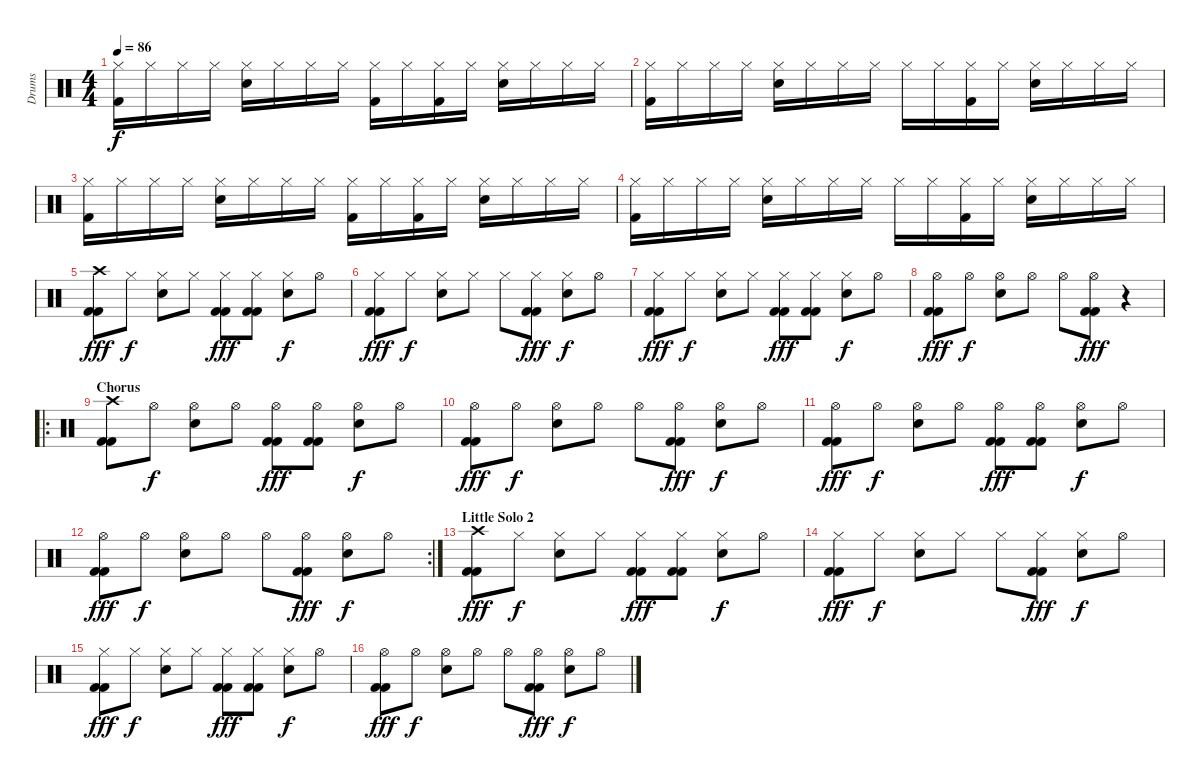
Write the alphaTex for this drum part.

\track ("Drums" "Drums") {instrument percussion}
\staff {score}
\articulation defaults
\ts (4 4)
\tempo 86
\clef neutral
\ks c
("Hi-Hat (closed)" "Kick (hit) 2").16{dy f} "Hi-Hat (closed)".16 "Hi-Hat (closed)".16 "Hi-Hat (closed)".16 ("Hi-Hat (closed)" "Electric Snare (hit)").16 "Hi-Hat (closed)".16 "Hi-Hat (closed)".16 "Hi-Hat (closed)".16 ("Hi-Hat (closed)" "Kick (hit) 2").16 "Hi-Hat (closed)".16 ("Hi-Hat (closed)" "Kick (hit) 2").16 "Hi-Hat (closed)".16 ("Hi-Hat (closed)" "Electric Snare (hit)").16 "Hi-Hat (closed)".16 "Hi-Hat (closed)".16 "Hi-Hat (closed)".16 |
("Hi-Hat (closed)" "Kick (hit) 2").16 "Hi-Hat (closed)".16 "Hi-Hat (closed)".16 "Hi-Hat (closed)".16 ("Hi-Hat (closed)" "Electric Snare (hit)").16 "Hi-Hat (closed)".16 "Hi-Hat (closed)".16 "Hi-Hat (closed)".16 "Hi-Hat (closed)".16 "Hi-Hat (closed)".16 ("Hi-Hat (closed)" "Kick (hit) 2").16 "Hi-Hat (closed)".16 ("Hi-Hat (closed)" "Electric Snare (hit)").16 "Hi-Hat (closed)".16 "Hi-Hat (closed)".16 "Hi-Hat (closed)".16 |
("Hi-Hat (closed)" "Kick (hit) 2").16 "Hi-Hat (closed)".16 "Hi-Hat (closed)".16 "Hi-Hat (closed)".16 ("Hi-Hat (closed)" "Electric Snare (hit)").16 "Hi-Hat (closed)".16 "Hi-Hat (closed)".16 "Hi-Hat (closed)".16 ("Hi-Hat (closed)" "Kick (hit) 2").16 "Hi-Hat (closed)".16 ("Hi-Hat (closed)" "Kick (hit) 2").16 "Hi-Hat (closed)".16 ("Hi-Hat (closed)" "Electric Snare (hit)").16 "Hi-Hat (closed)".16 "Hi-Hat (closed)".16 "Hi-Hat (closed)".16 |
("Hi-Hat (closed)" "Kick (hit) 2").16 "Hi-Hat (closed)".16 "Hi-Hat (closed)".16 "Hi-Hat (closed)".16 ("Hi-Hat (closed)" "Electric Snare (hit)").16 "Hi-Hat (closed)".16 "Hi-Hat (closed)".16 "Hi-Hat (closed)".16 "Hi-Hat (closed)".16 "Hi-Hat (closed)".16 ("Hi-Hat (closed)" "Kick (hit) 2").16 "Hi-Hat (closed)".16 ("Hi-Hat (closed)" "Electric Snare (hit)").16 "Hi-Hat (closed)".16 "Hi-Hat (closed)".16 "Hi-Hat (closed)".16 |
("Crash high (hit)" "Kick (hit) 2" "Kick (hit) 2").8{dy fff} "Hi-Hat (closed)".8{dy f} ("Hi-Hat (closed)" "Electric Snare (hit)").8 "Hi-Hat (closed)".8 ("Hi-Hat (closed)" "Kick (hit) 2" "Kick (hit) 2").8{dy fff} ("Hi-Hat (closed)" "Kick (hit) 2" "Kick (hit) 2").8 ("Hi-Hat (closed)" "Electric Snare (hit)").8{dy f} "Hi-Hat (open)".8 |
("Hi-Hat (closed)" "Kick (hit) 2" "Kick (hit) 2").8{dy fff} "Hi-Hat (closed)".8{dy f} ("Hi-Hat (closed)" "Electric Snare (hit)").8 "Hi-Hat (closed)".8 "Hi-Hat (closed)".8 ("Hi-Hat (closed)" "Kick (hit) 2" "Kick (hit) 2").8{dy fff} ("Hi-Hat (closed)" "Electric Snare (hit)").8{dy f} "Hi-Hat (open)".8 |
("Hi-Hat (closed)" "Kick (hit) 2" "Kick (hit) 2").8{dy fff} "Hi-Hat (closed)".8{dy f} ("Hi-Hat (closed)" "Electric Snare (hit)").8 "Hi-Hat (closed)".8 ("Hi-Hat (closed)" "Kick (hit) 2" "Kick (hit) 2").8{dy fff} ("Hi-Hat (closed)" "Kick (hit) 2" "Kick (hit) 2").8 ("Hi-Hat (closed)" "Electric Snare (hit)").8{dy f} "Hi-Hat (open)".8 |
("Hi-Hat (open)" "Kick (hit) 2" "Kick (hit) 2").8{dy fff} "Hi-Hat (open)".8{dy f} ("Hi-Hat (open)" "Electric Snare (hit)").8 "Hi-Hat (open)".8 "Hi-Hat (open)".8 ("Hi-Hat (open)" "Kick (hit) 2" "Kick (hit) 2").8{dy fff} r.4 |
\ro
\section ("" "Chorus")
("Crash high (hit)" "Kick (hit) 2" "Kick (hit) 2").8 "Hi-Hat (open)".8{dy f} ("Hi-Hat (open)" "Electric Snare (hit)").8 "Hi-Hat (open)".8 ("Hi-Hat (open)" "Kick (hit) 2" "Kick (hit) 2").8{dy fff} ("Hi-Hat (open)" "Kick (hit) 2" "Kick (hit) 2").8 ("Hi-Hat (open)" "Electric Snare (hit)").8{dy f} "Hi-Hat (open)".8 |
("Hi-Hat (open)" "Kick (hit) 2" "Kick (hit) 2").8{dy fff} "Hi-Hat (open)".8{dy f} ("Hi-Hat (open)" "Electric Snare (hit)").8 "Hi-Hat (open)".8 "Hi-Hat (open)".8 ("Hi-Hat (open)" "Kick (hit) 2" "Kick (hit) 2").8{dy fff} ("Hi-Hat (open)" "Electric Snare (hit)").8{dy f} "Hi-Hat (open)".8 |
("Hi-Hat (open)" "Kick (hit) 2" "Kick (hit) 2").8{dy fff} "Hi-Hat (open)".8{dy f} ("Hi-Hat (open)" "Electric Snare (hit)").8 "Hi-Hat (open)".8 ("Hi-Hat (open)" "Kick (hit) 2" "Kick (hit) 2").8{dy fff} ("Hi-Hat (open)" "Kick (hit) 2" "Kick (hit) 2").8 ("Hi-Hat (open)" "Electric Snare (hit)").8{dy f} "Hi-Hat (open)".8 |
\rc 2
("Hi-Hat (open)" "Kick (hit) 2" "Kick (hit) 2").8{dy fff} "Hi-Hat (open)".8{dy f} ("Hi-Hat (open)" "Electric Snare (hit)").8 "Hi-Hat (open)".8 "Hi-Hat (open)".8 ("Hi-Hat (open)" "Kick (hit) 2" "Kick (hit) 2").8{dy fff} ("Hi-Hat (open)" "Electric Snare (hit)").8{dy f} "Hi-Hat (open)".8 |
\section ("" "Little Solo 2")
("Crash high (hit)" "Kick (hit) 2" "Kick (hit) 2").8{dy fff} "Hi-Hat (closed)".8{dy f} ("Hi-Hat (closed)" "Electric Snare (hit)").8 "Hi-Hat (closed)".8 ("Hi-Hat (closed)" "Kick (hit) 2" "Kick (hit) 2").8{dy fff} ("Hi-Hat (closed)" "Kick (hit) 2" "Kick (hit) 2").8 ("Hi-Hat (closed)" "Electric Snare (hit)").8{dy f} "Hi-Hat (open)".8 |
("Hi-Hat (closed)" "Kick (hit) 2" "Kick (hit) 2").8{dy fff} "Hi-Hat (closed)".8{dy f} ("Hi-Hat (closed)" "Electric Snare (hit)").8 "Hi-Hat (closed)".8 "Hi-Hat (closed)".8 ("Hi-Hat (closed)" "Kick (hit) 2" "Kick (hit) 2").8{dy fff} ("Hi-Hat (closed)" "Electric Snare (hit)").8{dy f} "Hi-Hat (open)".8 |
("Hi-Hat (closed)" "Kick (hit) 2" "Kick (hit) 2").8{dy fff} "Hi-Hat (closed)".8{dy f} ("Hi-Hat (closed)" "Electric Snare (hit)").8 "Hi-Hat (closed)".8 ("Hi-Hat (closed)" "Kick (hit) 2" "Kick (hit) 2").8{dy fff} ("Hi-Hat (closed)" "Kick (hit) 2" "Kick (hit) 2").8 ("Hi-Hat (closed)" "Electric Snare (hit)").8{dy f} "Hi-Hat (open)".8 |
("Hi-Hat (open)" "Kick (hit) 2" "Kick (hit) 2").8{dy fff} "Hi-Hat (open)".8{dy f} ("Hi-Hat (open)" "Electric Snare (hit)").8 "Hi-Hat (open)".8 "Hi-Hat (open)".8 ("Hi-Hat (open)" "Kick (hit) 2" "Kick (hit) 2").8{dy fff} ("Hi-Hat (open)" "Electric Snare (hit)").8{dy f} "Hi-Hat (open)".8
